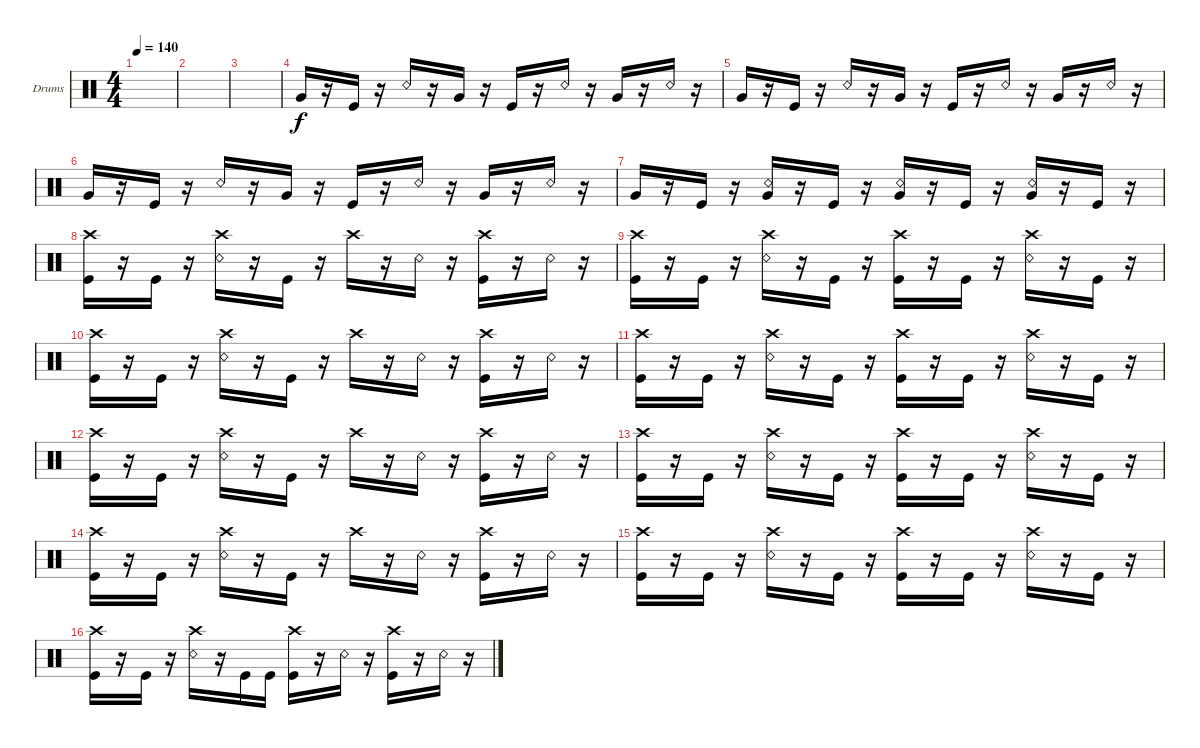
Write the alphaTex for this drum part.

\defaultSystemsLayout 4
\bracketExtendMode groupsimilarinstruments
\firstSystemTrackNameOrientation horizontal
\otherSystemsTrackNameOrientation horizontal
\track ("Drums" "Drums") {instrument percussion}
\staff {score}
\articulation defaults
\ts (4 4)
\tempo 140
\clef neutral
\ks c
|
|
|
"Very Low Tom (hit)".16 r.16 "Kick (hit)".16 r.16 "Snare (rim shot)".16 r.16 "Very Low Tom (hit)".16 r.16 "Kick (hit)".16 r.16 "Snare (rim shot)".16 r.16 "Very Low Tom (hit)".16 r.16 "Snare (rim shot)".16 r.16 |
"Very Low Tom (hit)".16 r.16 "Kick (hit)".16 r.16 "Snare (rim shot)".16 r.16 "Very Low Tom (hit)".16 r.16 "Kick (hit)".16 r.16 "Snare (rim shot)".16 r.16 "Very Low Tom (hit)".16 r.16 "Snare (rim shot)".16 r.16 |
"Very Low Tom (hit)".16 r.16 "Kick (hit)".16 r.16 "Snare (rim shot)".16 r.16 "Very Low Tom (hit)".16 r.16 "Kick (hit)".16 r.16 "Snare (rim shot)".16 r.16 "Very Low Tom (hit)".16 r.16 "Snare (rim shot)".16 r.16 |
"Very Low Tom (hit)".16 r.16 "Kick (hit)".16 r.16 ("Snare (rim shot)" "Very Low Tom (hit)").16 r.16 "Kick (hit)".16 r.16 ("Snare (rim shot)" "Very Low Tom (hit)").16 r.16 "Kick (hit)".16 r.16 ("Snare (rim shot)" "Very Low Tom (hit)").16 r.16 "Kick (hit)".16 r.16 |
("Kick (hit)" "Crash high (hit)").16 r.16 "Kick (hit)".16 r.16 ("Snare (rim shot)" "Crash high (hit)").16 r.16 "Kick (hit)".16 r.16 "Crash high (hit)".16 r.16 "Snare (rim shot)".16 r.16 ("Kick (hit)" "Crash high (hit)").16 r.16 "Snare (rim shot)".16 r.16 |
("Kick (hit)" "Crash high (hit)").16 r.16 "Kick (hit)".16 r.16 ("Snare (rim shot)" "Crash high (hit)").16 r.16 "Kick (hit)".16 r.16 ("Kick (hit)" "Crash high (hit)").16 r.16 "Kick (hit)".16 r.16 ("Snare (rim shot)" "Crash high (hit)").16 r.16 "Kick (hit)".16 r.16 |
("Kick (hit)" "Crash high (hit)").16 r.16 "Kick (hit)".16 r.16 ("Snare (rim shot)" "Crash high (hit)").16 r.16 "Kick (hit)".16 r.16 "Crash high (hit)".16 r.16 "Snare (rim shot)".16 r.16 ("Kick (hit)" "Crash high (hit)").16 r.16 "Snare (rim shot)".16 r.16 |
("Kick (hit)" "Crash high (hit)").16 r.16 "Kick (hit)".16 r.16 ("Snare (rim shot)" "Crash high (hit)").16 r.16 "Kick (hit)".16 r.16 ("Kick (hit)" "Crash high (hit)").16 r.16 "Kick (hit)".16 r.16 ("Snare (rim shot)" "Crash high (hit)").16 r.16 "Kick (hit)".16 r.16 |
("Kick (hit)" "Crash high (hit)").16 r.16 "Kick (hit)".16 r.16 ("Snare (rim shot)" "Crash high (hit)").16 r.16 "Kick (hit)".16 r.16 "Crash high (hit)".16 r.16 "Snare (rim shot)".16 r.16 ("Kick (hit)" "Crash high (hit)").16 r.16 "Snare (rim shot)".16 r.16 |
("Kick (hit)" "Crash high (hit)").16 r.16 "Kick (hit)".16 r.16 ("Snare (rim shot)" "Crash high (hit)").16 r.16 "Kick (hit)".16 r.16 ("Kick (hit)" "Crash high (hit)").16 r.16 "Kick (hit)".16 r.16 ("Snare (rim shot)" "Crash high (hit)").16 r.16 "Kick (hit)".16 r.16 |
("Kick (hit)" "Crash high (hit)").16 r.16 "Kick (hit)".16 r.16 ("Snare (rim shot)" "Crash high (hit)").16 r.16 "Kick (hit)".16 r.16 "Crash high (hit)".16 r.16 "Snare (rim shot)".16 r.16 ("Kick (hit)" "Crash high (hit)").16 r.16 "Snare (rim shot)".16 r.16 |
("Kick (hit)" "Crash high (hit)").16 r.16 "Kick (hit)".16 r.16 ("Snare (rim shot)" "Crash high (hit)").16 r.16 "Kick (hit)".16 r.16 ("Kick (hit)" "Crash high (hit)").16 r.16 "Kick (hit)".16 r.16 ("Snare (rim shot)" "Crash high (hit)").16 r.16 "Kick (hit)".16 r.16 |
("Kick (hit)" "Crash high (hit)").16 r.16 "Kick (hit)".16 r.16 ("Snare (rim shot)" "Crash high (hit)").16 r.16 "Kick (hit)".16 "Kick (hit)".16 ("Crash high (hit)" "Kick (hit)").16 r.16 "Snare (rim shot)".16 r.16 ("Kick (hit)" "Crash high (hit)").16 r.16 "Snare (rim shot)".16 r.16
